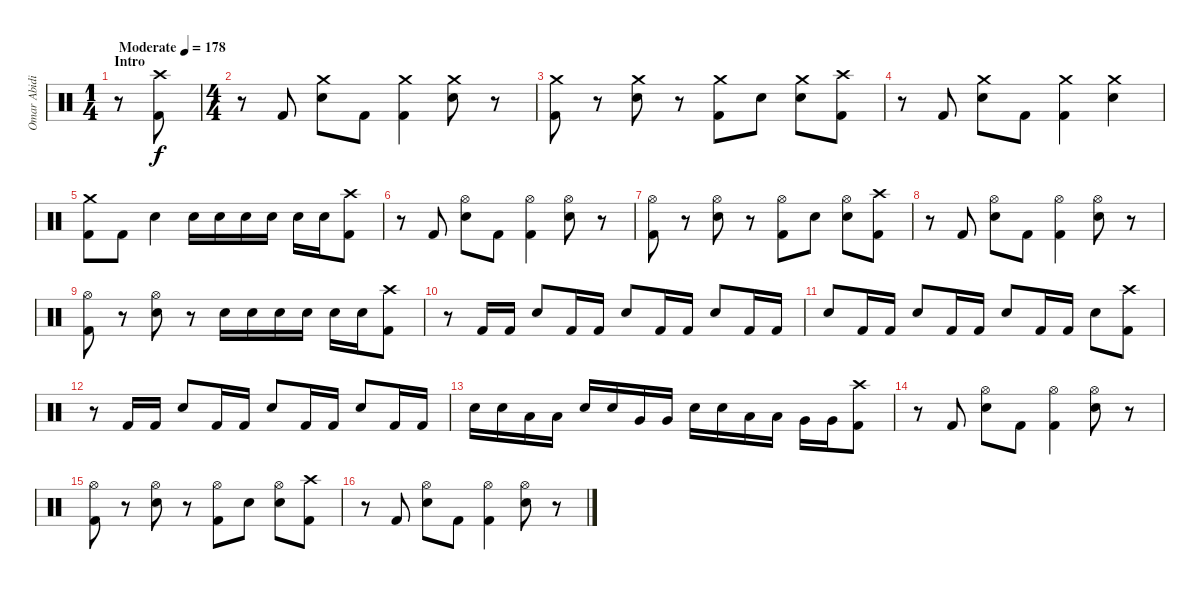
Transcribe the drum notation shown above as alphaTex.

\track ("Omar Abidi" "Omar Abidi") {instrument percussion}
\staff {score}
\articulation defaults
\ts (1 4)
\section ("" "Intro")
\tempo (178 "Moderate")
\clef neutral
\ks c
r.8{dy f} ("Crash high (hit)" "Kick (hit) 2").8 |
\ts (4 4)
r.8 "Kick (hit) 2".8 ("Crash medium (hit)" "Electric Snare (hit)").8 "Kick (hit) 2".8 ("Crash medium (hit)" "Kick (hit) 2").4 ("Crash medium (hit)" "Electric Snare (hit)").8 r.8 |
("Crash medium (hit)" "Kick (hit) 2").8 r.8 ("Crash medium (hit)" "Electric Snare (hit)").8 r.8 ("Crash medium (hit)" "Kick (hit) 2").8 "Electric Snare (hit)".8 ("Crash medium (hit)" "Electric Snare (hit)").8 ("Crash high (hit)" "Kick (hit) 2").8 |
r.8 "Kick (hit) 2".8 ("Crash medium (hit)" "Electric Snare (hit)").8 "Kick (hit) 2".8 ("Crash medium (hit)" "Kick (hit) 2").4 ("Crash medium (hit)" "Electric Snare (hit)").4 |
("Crash medium (hit)" "Kick (hit) 2").8 "Kick (hit) 2".8 "Electric Snare (hit)".4 "Electric Snare (hit)".16 "Electric Snare (hit)".16 "Electric Snare (hit)".16 "Electric Snare (hit)".16 "Electric Snare (hit)".16 "Electric Snare (hit)".16 ("Crash high (hit)" "Kick (hit) 2").8 |
r.8 "Kick (hit) 2".8 ("Hi-Hat (open)" "Electric Snare (hit)").8 "Kick (hit) 2".8 ("Hi-Hat (open)" "Kick (hit) 2").4 ("Hi-Hat (open)" "Electric Snare (hit)").8 r.8 |
("Hi-Hat (open)" "Kick (hit) 2").8 r.8 ("Hi-Hat (open)" "Electric Snare (hit)").8 r.8 ("Hi-Hat (open)" "Kick (hit) 2").8 "Electric Snare (hit)".8 ("Hi-Hat (open)" "Electric Snare (hit)").8 ("Crash high (hit)" "Kick (hit) 2").8 |
r.8 "Kick (hit) 2".8 ("Hi-Hat (open)" "Electric Snare (hit)").8 "Kick (hit) 2".8 ("Hi-Hat (open)" "Kick (hit) 2").4 ("Hi-Hat (open)" "Electric Snare (hit)").8 r.8 |
("Hi-Hat (open)" "Kick (hit) 2").8 r.8 ("Hi-Hat (open)" "Electric Snare (hit)").8 r.8 "Electric Snare (hit)".16 "Electric Snare (hit)".16 "Electric Snare (hit)".16 "Electric Snare (hit)".16 "Electric Snare (hit)".16 "Electric Snare (hit)".16 ("Crash high (hit)" "Kick (hit) 2").8 |
r.8 "Kick (hit) 2".16 "Kick (hit) 2".16 "Electric Snare (hit)".8 "Kick (hit) 2".16 "Kick (hit) 2".16 "Electric Snare (hit)".8 "Kick (hit) 2".16 "Kick (hit) 2".16 "Electric Snare (hit)".8 "Kick (hit) 2".16 "Kick (hit) 2".16 |
"Electric Snare (hit)".8 "Kick (hit) 2".16 "Kick (hit) 2".16 "Electric Snare (hit)".8 "Kick (hit) 2".16 "Kick (hit) 2".16 "Electric Snare (hit)".8 "Kick (hit) 2".16 "Kick (hit) 2".16 "Electric Snare (hit)".8 ("Crash high (hit)" "Kick (hit) 2").8 |
r.8 "Kick (hit) 2".16 "Kick (hit) 2".16 "Electric Snare (hit)".8 "Kick (hit) 2".16 "Kick (hit) 2".16 "Electric Snare (hit)".8 "Kick (hit) 2".16 "Kick (hit) 2".16 "Electric Snare (hit)".8 "Kick (hit) 2".16 "Kick (hit) 2".16 |
"Electric Snare (hit)".16 "Electric Snare (hit)".16 "Low Tom (hit)".16 "Low Tom (hit)".16 "Electric Snare (hit)".16 "Electric Snare (hit)".16 "Very Low Tom (hit)".16 "Very Low Tom (hit)".16 "Electric Snare (hit)".16 "Electric Snare (hit)".16 "Low Tom (hit)".16 "Low Tom (hit)".16 "Very Low Tom (hit)".16 "Very Low Tom (hit)".16 ("Crash high (hit)" "Kick (hit) 2").8 |
r.8 "Kick (hit) 2".8 ("Hi-Hat (open)" "Electric Snare (hit)").8 "Kick (hit) 2".8 ("Hi-Hat (open)" "Kick (hit) 2").4 ("Hi-Hat (open)" "Electric Snare (hit)").8 r.8 |
("Hi-Hat (open)" "Kick (hit) 2").8 r.8 ("Hi-Hat (open)" "Electric Snare (hit)").8 r.8 ("Hi-Hat (open)" "Kick (hit) 2").8 "Electric Snare (hit)".8 ("Hi-Hat (open)" "Electric Snare (hit)").8 ("Crash high (hit)" "Kick (hit) 2").8 |
r.8 "Kick (hit) 2".8 ("Hi-Hat (open)" "Electric Snare (hit)").8 "Kick (hit) 2".8 ("Hi-Hat (open)" "Kick (hit) 2").4 ("Hi-Hat (open)" "Electric Snare (hit)").8 r.8
